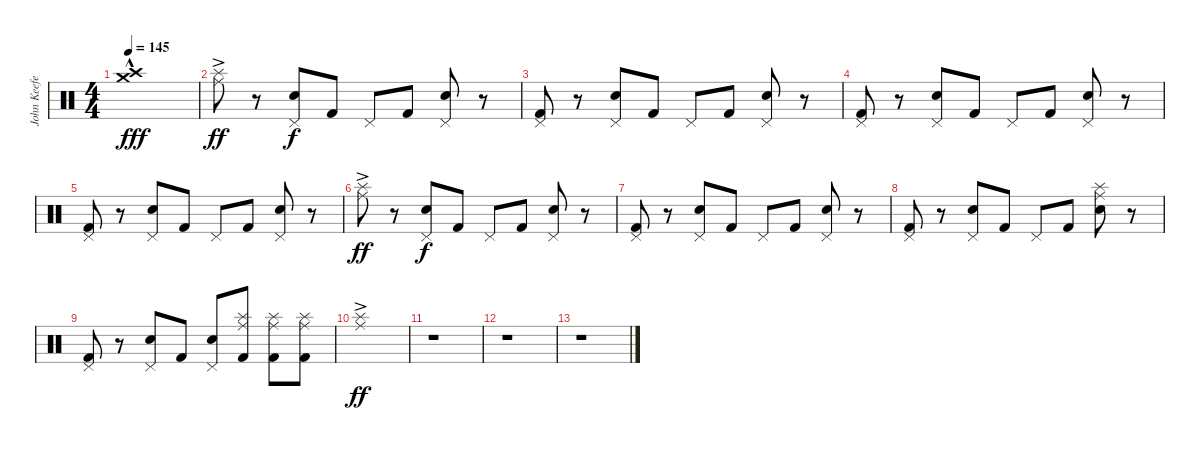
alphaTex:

\track ("John Keefe (Percussion)" "John Keefe") {instrument percussion}
\staff {score}
\articulation defaults
\ts (4 4)
\tempo 145
\clef neutral
\ks c
("Crash high (hit)"{hac} "Crash medium (hit)"{hac}).1{dy fff} |
("Ride (middle)" "Splash (hit)"{ac}).8{dy ff} r.8 ("Pedal Hi-Hat (hit)" "Electric Snare (hit)").8{dy f} "Kick (hit) 2".8 "Pedal Hi-Hat (hit)".8 "Kick (hit) 2".8 ("Pedal Hi-Hat (hit)" "Electric Snare (hit)").8 r.8 |
("Pedal Hi-Hat (hit)" "Kick (hit) 2").8 r.8 ("Pedal Hi-Hat (hit)" "Electric Snare (hit)").8 "Kick (hit) 2".8 "Pedal Hi-Hat (hit)".8 "Kick (hit) 2".8 ("Pedal Hi-Hat (hit)" "Electric Snare (hit)").8 r.8 |
("Pedal Hi-Hat (hit)" "Kick (hit) 2").8 r.8 ("Pedal Hi-Hat (hit)" "Electric Snare (hit)").8 "Kick (hit) 2".8 "Pedal Hi-Hat (hit)".8 "Kick (hit) 2".8 ("Pedal Hi-Hat (hit)" "Electric Snare (hit)").8 r.8 |
("Pedal Hi-Hat (hit)" "Kick (hit) 2").8 r.8 ("Pedal Hi-Hat (hit)" "Electric Snare (hit)").8 "Kick (hit) 2".8 "Pedal Hi-Hat (hit)".8 "Kick (hit) 2".8 ("Pedal Hi-Hat (hit)" "Electric Snare (hit)").8 r.8 |
("Ride (middle)"{ac} "Splash (hit)"{ac}).8{dy ff} r.8 ("Pedal Hi-Hat (hit)" "Electric Snare (hit)").8{dy f} "Kick (hit) 2".8 "Pedal Hi-Hat (hit)".8 "Kick (hit) 2".8 ("Pedal Hi-Hat (hit)" "Electric Snare (hit)").8 r.8 |
("Pedal Hi-Hat (hit)" "Kick (hit) 2").8 r.8 ("Pedal Hi-Hat (hit)" "Electric Snare (hit)").8 "Kick (hit) 2".8 "Pedal Hi-Hat (hit)".8 "Kick (hit) 2".8 ("Pedal Hi-Hat (hit)" "Electric Snare (hit)").8 r.8 |
("Pedal Hi-Hat (hit)" "Kick (hit) 2").8 r.8 ("Pedal Hi-Hat (hit)" "Electric Snare (hit)").8 "Kick (hit) 2".8 "Pedal Hi-Hat (hit)".8 "Kick (hit) 2".8 ("Ride (middle)" "Splash (hit)" "Electric Snare (hit)").8 r.8 |
("Pedal Hi-Hat (hit)" "Kick (hit) 2").8 r.8 ("Pedal Hi-Hat (hit)" "Electric Snare (hit)").8 "Kick (hit) 2".8 ("Pedal Hi-Hat (hit)" "Electric Snare (hit)").8 ("Ride (middle)" "Splash (hit)" "Kick (hit) 2").8 ("Ride (middle)" "Splash (hit)" "Kick (hit) 2").8 ("Ride (middle)" "Splash (hit)" "Kick (hit) 2").8 |
("Ride (middle)"{ac} "Splash (hit)"{ac}).1{dy ff} |
r.1 |
r.1 |
r.1
